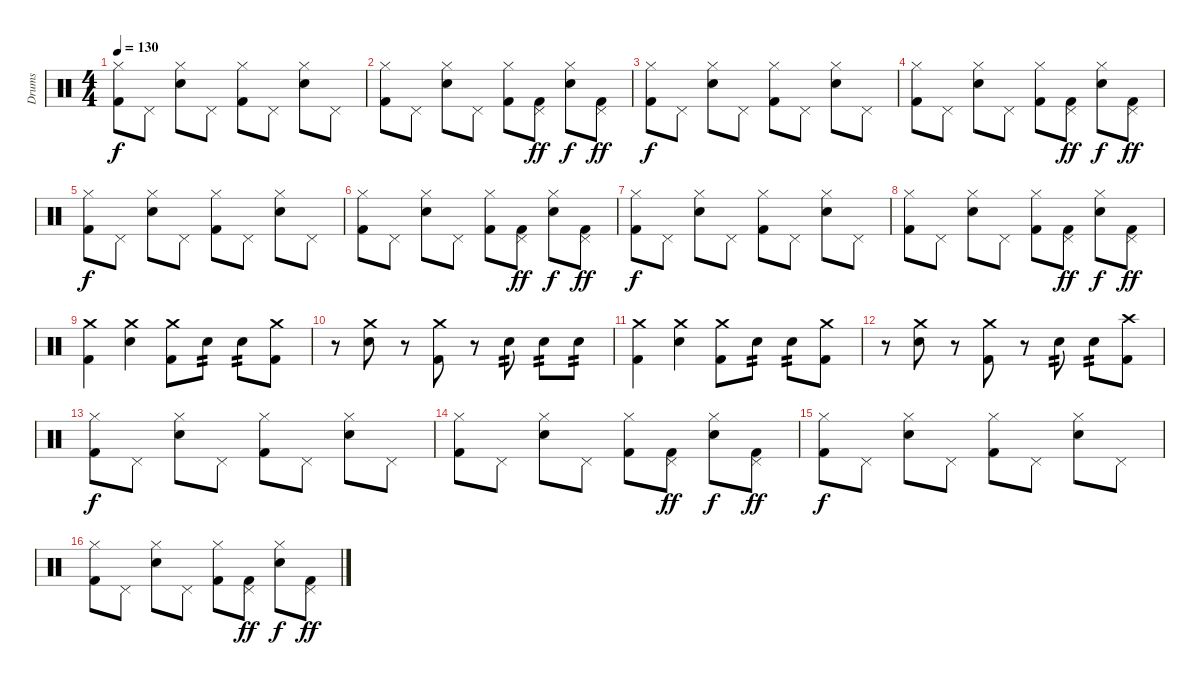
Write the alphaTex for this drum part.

\track ("Drums" "Drums") {instrument percussion}
\staff {score}
\articulation defaults
\ts (4 4)
\tempo 130
\clef neutral
\ks c
("Kick (hit) 2" "Hi-Hat (closed)").8{dy f} "Pedal Hi-Hat (hit)".8 ("Electric Snare (hit)" "Hi-Hat (closed)").8 "Pedal Hi-Hat (hit)".8 ("Kick (hit) 2" "Hi-Hat (closed)").8 "Pedal Hi-Hat (hit)".8 ("Electric Snare (hit)" "Hi-Hat (closed)").8 "Pedal Hi-Hat (hit)".8 |
("Kick (hit) 2" "Hi-Hat (closed)").8 "Pedal Hi-Hat (hit)".8 ("Electric Snare (hit)" "Hi-Hat (closed)").8 "Pedal Hi-Hat (hit)".8 ("Kick (hit) 2" "Hi-Hat (closed)").8 ("Kick (hit) 2" "Pedal Hi-Hat (hit)").8{dy ff} ("Electric Snare (hit)" "Hi-Hat (closed)").8{dy f} ("Kick (hit) 2" "Pedal Hi-Hat (hit)").8{dy ff} |
("Kick (hit) 2" "Hi-Hat (closed)").8{dy f} "Pedal Hi-Hat (hit)".8 ("Electric Snare (hit)" "Hi-Hat (closed)").8 "Pedal Hi-Hat (hit)".8 ("Kick (hit) 2" "Hi-Hat (closed)").8 "Pedal Hi-Hat (hit)".8 ("Electric Snare (hit)" "Hi-Hat (closed)").8 "Pedal Hi-Hat (hit)".8 |
("Kick (hit) 2" "Hi-Hat (closed)").8 "Pedal Hi-Hat (hit)".8 ("Electric Snare (hit)" "Hi-Hat (closed)").8 "Pedal Hi-Hat (hit)".8 ("Kick (hit) 2" "Hi-Hat (closed)").8 ("Kick (hit) 2" "Pedal Hi-Hat (hit)").8{dy ff} ("Electric Snare (hit)" "Hi-Hat (closed)").8{dy f} ("Kick (hit) 2" "Pedal Hi-Hat (hit)").8{dy ff} |
("Kick (hit) 2" "Hi-Hat (closed)").8{dy f} "Pedal Hi-Hat (hit)".8 ("Electric Snare (hit)" "Hi-Hat (closed)").8 "Pedal Hi-Hat (hit)".8 ("Kick (hit) 2" "Hi-Hat (closed)").8 "Pedal Hi-Hat (hit)".8 ("Electric Snare (hit)" "Hi-Hat (closed)").8 "Pedal Hi-Hat (hit)".8 |
("Kick (hit) 2" "Hi-Hat (closed)").8 "Pedal Hi-Hat (hit)".8 ("Electric Snare (hit)" "Hi-Hat (closed)").8 "Pedal Hi-Hat (hit)".8 ("Kick (hit) 2" "Hi-Hat (closed)").8 ("Kick (hit) 2" "Pedal Hi-Hat (hit)").8{dy ff} ("Electric Snare (hit)" "Hi-Hat (closed)").8{dy f} ("Kick (hit) 2" "Pedal Hi-Hat (hit)").8{dy ff} |
("Kick (hit) 2" "Hi-Hat (closed)").8{dy f} "Pedal Hi-Hat (hit)".8 ("Electric Snare (hit)" "Hi-Hat (closed)").8 "Pedal Hi-Hat (hit)".8 ("Kick (hit) 2" "Hi-Hat (closed)").8 "Pedal Hi-Hat (hit)".8 ("Electric Snare (hit)" "Hi-Hat (closed)").8 "Pedal Hi-Hat (hit)".8 |
("Kick (hit) 2" "Hi-Hat (closed)").8 "Pedal Hi-Hat (hit)".8 ("Electric Snare (hit)" "Hi-Hat (closed)").8 "Pedal Hi-Hat (hit)".8 ("Kick (hit) 2" "Hi-Hat (closed)").8 ("Kick (hit) 2" "Pedal Hi-Hat (hit)").8{dy ff} ("Electric Snare (hit)" "Hi-Hat (closed)").8{dy f} ("Kick (hit) 2" "Pedal Hi-Hat (hit)").8{dy ff} |
("Kick (hit) 2" "Crash medium (hit)").4 ("Electric Snare (hit)" "Crash medium (hit)").4 ("Kick (hit) 2" "Crash medium (hit)").8 "Electric Snare (hit)".8{tp 2} "Electric Snare (hit)".8{tp 2} ("Kick (hit) 2" "Crash medium (hit)").8 |
r.8 ("Electric Snare (hit)" "Crash medium (hit)").8 r.8 ("Kick (hit) 2" "Crash medium (hit)").8 r.8 "Electric Snare (hit)".8{tp 2} "Electric Snare (hit)".8{tp 2} "Electric Snare (hit)".8{tp 2} |
("Kick (hit) 2" "Crash medium (hit)").4 ("Electric Snare (hit)" "Crash medium (hit)").4 ("Kick (hit) 2" "Crash medium (hit)").8 "Electric Snare (hit)".8{tp 2} "Electric Snare (hit)".8{tp 2} ("Kick (hit) 2" "Crash medium (hit)").8 |
r.8 ("Electric Snare (hit)" "Crash medium (hit)").8 r.8 ("Kick (hit) 2" "Crash medium (hit)").8 r.8 "Electric Snare (hit)".8{tp 2} "Electric Snare (hit)".8{tp 2} ("Kick (hit) 2" "Crash high (hit)").8 |
("Kick (hit) 2" "Hi-Hat (closed)").8{dy f} "Pedal Hi-Hat (hit)".8 ("Electric Snare (hit)" "Hi-Hat (closed)").8 "Pedal Hi-Hat (hit)".8 ("Kick (hit) 2" "Hi-Hat (closed)").8 "Pedal Hi-Hat (hit)".8 ("Electric Snare (hit)" "Hi-Hat (closed)").8 "Pedal Hi-Hat (hit)".8 |
("Kick (hit) 2" "Hi-Hat (closed)").8 "Pedal Hi-Hat (hit)".8 ("Electric Snare (hit)" "Hi-Hat (closed)").8 "Pedal Hi-Hat (hit)".8 ("Kick (hit) 2" "Hi-Hat (closed)").8 ("Kick (hit) 2" "Pedal Hi-Hat (hit)").8{dy ff} ("Electric Snare (hit)" "Hi-Hat (closed)").8{dy f} ("Kick (hit) 2" "Pedal Hi-Hat (hit)").8{dy ff} |
("Kick (hit) 2" "Hi-Hat (closed)").8{dy f} "Pedal Hi-Hat (hit)".8 ("Electric Snare (hit)" "Hi-Hat (closed)").8 "Pedal Hi-Hat (hit)".8 ("Kick (hit) 2" "Hi-Hat (closed)").8 "Pedal Hi-Hat (hit)".8 ("Electric Snare (hit)" "Hi-Hat (closed)").8 "Pedal Hi-Hat (hit)".8 |
("Kick (hit) 2" "Hi-Hat (closed)").8 "Pedal Hi-Hat (hit)".8 ("Electric Snare (hit)" "Hi-Hat (closed)").8 "Pedal Hi-Hat (hit)".8 ("Kick (hit) 2" "Hi-Hat (closed)").8 ("Kick (hit) 2" "Pedal Hi-Hat (hit)").8{dy ff} ("Electric Snare (hit)" "Hi-Hat (closed)").8{dy f} ("Kick (hit) 2" "Pedal Hi-Hat (hit)").8{dy ff}
